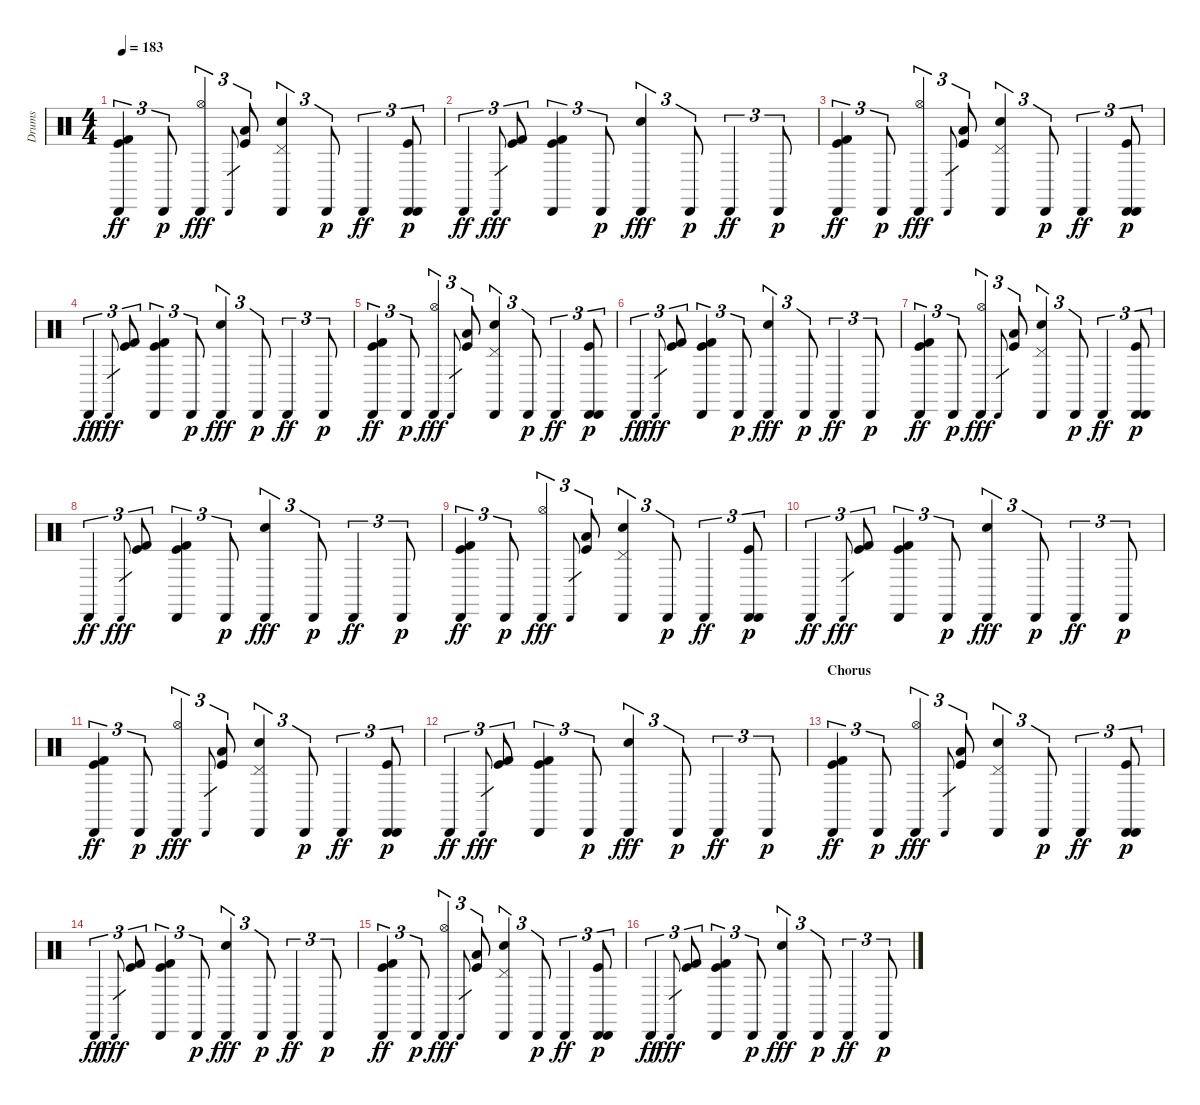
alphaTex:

\track ("Drums" "Drums") {instrument percussion}
\staff {score}
\articulation defaults
\ts (4 4)
\tempo 183
\clef neutral
\ks c
("Kick (hit) 2" "Kick (hit)" "Cabasa (hit)").4{tu (3 2) dy ff} "Cabasa (hit)".8{tu (3 2) dy p} ("Cabasa (hit)" "Hi-Hat (open)").4{tu (3 2) dy fff} "Cabasa (hit)".8{gr} ("Kick (hit)" "Low Floor Tom (hit)").8{tu (3 2)} ("Cabasa (hit)" "Electric Snare (hit)" "Pedal Hi-Hat (hit)").4{tu (3 2)} "Cabasa (hit)".8{tu (3 2) dy p} "Cabasa (hit)".4{tu (3 2) dy ff} ("Cabasa (hit)" "Kick (hit)" "Cabasa (hit)").8{tu (3 2) dy p} |
"Cabasa (hit)".4{tu (3 2) dy ff} "Cabasa (hit)".8{gr dy fff} ("Kick (hit)" "Kick (hit) 2").8{tu (3 2)} ("Cabasa (hit)" "Kick (hit)" "Kick (hit) 2").4{tu (3 2)} "Cabasa (hit)".8{tu (3 2) dy p} ("Cabasa (hit)" "Electric Snare (hit)").4{tu (3 2) dy fff} "Cabasa (hit)".8{tu (3 2) dy p} "Cabasa (hit)".4{tu (3 2) dy ff} "Cabasa (hit)".8{tu (3 2) dy p} |
("Kick (hit) 2" "Kick (hit)" "Cabasa (hit)").4{tu (3 2) dy ff} "Cabasa (hit)".8{tu (3 2) dy p} ("Cabasa (hit)" "Hi-Hat (open)").4{tu (3 2) dy fff} "Cabasa (hit)".8{gr} ("Kick (hit)" "Low Floor Tom (hit)").8{tu (3 2)} ("Cabasa (hit)" "Electric Snare (hit)" "Pedal Hi-Hat (hit)").4{tu (3 2)} "Cabasa (hit)".8{tu (3 2) dy p} "Cabasa (hit)".4{tu (3 2) dy ff} ("Cabasa (hit)" "Kick (hit)" "Cabasa (hit)").8{tu (3 2) dy p} |
"Cabasa (hit)".4{tu (3 2) dy ff} "Cabasa (hit)".8{gr dy fff} ("Kick (hit)" "Kick (hit) 2").8{tu (3 2)} ("Cabasa (hit)" "Kick (hit)" "Kick (hit) 2").4{tu (3 2)} "Cabasa (hit)".8{tu (3 2) dy p} ("Cabasa (hit)" "Electric Snare (hit)").4{tu (3 2) dy fff} "Cabasa (hit)".8{tu (3 2) dy p} "Cabasa (hit)".4{tu (3 2) dy ff} "Cabasa (hit)".8{tu (3 2) dy p} |
("Kick (hit) 2" "Kick (hit)" "Cabasa (hit)").4{tu (3 2) dy ff} "Cabasa (hit)".8{tu (3 2) dy p} ("Cabasa (hit)" "Hi-Hat (open)").4{tu (3 2) dy fff} "Cabasa (hit)".8{gr} ("Kick (hit)" "Low Floor Tom (hit)").8{tu (3 2)} ("Cabasa (hit)" "Electric Snare (hit)" "Pedal Hi-Hat (hit)").4{tu (3 2)} "Cabasa (hit)".8{tu (3 2) dy p} "Cabasa (hit)".4{tu (3 2) dy ff} ("Cabasa (hit)" "Kick (hit)" "Cabasa (hit)").8{tu (3 2) dy p} |
"Cabasa (hit)".4{tu (3 2) dy ff} "Cabasa (hit)".8{gr dy fff} ("Kick (hit)" "Kick (hit) 2").8{tu (3 2)} ("Cabasa (hit)" "Kick (hit)" "Kick (hit) 2").4{tu (3 2)} "Cabasa (hit)".8{tu (3 2) dy p} ("Cabasa (hit)" "Electric Snare (hit)").4{tu (3 2) dy fff} "Cabasa (hit)".8{tu (3 2) dy p} "Cabasa (hit)".4{tu (3 2) dy ff} "Cabasa (hit)".8{tu (3 2) dy p} |
("Kick (hit) 2" "Kick (hit)" "Cabasa (hit)").4{tu (3 2) dy ff} "Cabasa (hit)".8{tu (3 2) dy p} ("Cabasa (hit)" "Hi-Hat (open)").4{tu (3 2) dy fff} "Cabasa (hit)".8{gr} ("Kick (hit)" "Low Floor Tom (hit)").8{tu (3 2)} ("Cabasa (hit)" "Electric Snare (hit)" "Pedal Hi-Hat (hit)").4{tu (3 2)} "Cabasa (hit)".8{tu (3 2) dy p} "Cabasa (hit)".4{tu (3 2) dy ff} ("Cabasa (hit)" "Kick (hit)" "Cabasa (hit)").8{tu (3 2) dy p} |
"Cabasa (hit)".4{tu (3 2) dy ff} "Cabasa (hit)".8{gr dy fff} ("Kick (hit)" "Kick (hit) 2").8{tu (3 2)} ("Cabasa (hit)" "Kick (hit)" "Kick (hit) 2").4{tu (3 2)} "Cabasa (hit)".8{tu (3 2) dy p} ("Cabasa (hit)" "Electric Snare (hit)").4{tu (3 2) dy fff} "Cabasa (hit)".8{tu (3 2) dy p} "Cabasa (hit)".4{tu (3 2) dy ff} "Cabasa (hit)".8{tu (3 2) dy p} |
("Kick (hit) 2" "Kick (hit)" "Cabasa (hit)").4{tu (3 2) dy ff} "Cabasa (hit)".8{tu (3 2) dy p} ("Cabasa (hit)" "Hi-Hat (open)").4{tu (3 2) dy fff} "Cabasa (hit)".8{gr} ("Kick (hit)" "Low Floor Tom (hit)").8{tu (3 2)} ("Cabasa (hit)" "Electric Snare (hit)" "Pedal Hi-Hat (hit)").4{tu (3 2)} "Cabasa (hit)".8{tu (3 2) dy p} "Cabasa (hit)".4{tu (3 2) dy ff} ("Cabasa (hit)" "Kick (hit)" "Cabasa (hit)").8{tu (3 2) dy p} |
"Cabasa (hit)".4{tu (3 2) dy ff} "Cabasa (hit)".8{gr dy fff} ("Kick (hit)" "Kick (hit) 2").8{tu (3 2)} ("Cabasa (hit)" "Kick (hit)" "Kick (hit) 2").4{tu (3 2)} "Cabasa (hit)".8{tu (3 2) dy p} ("Cabasa (hit)" "Electric Snare (hit)").4{tu (3 2) dy fff} "Cabasa (hit)".8{tu (3 2) dy p} "Cabasa (hit)".4{tu (3 2) dy ff} "Cabasa (hit)".8{tu (3 2) dy p} |
("Kick (hit) 2" "Kick (hit)" "Cabasa (hit)").4{tu (3 2) dy ff} "Cabasa (hit)".8{tu (3 2) dy p} ("Cabasa (hit)" "Hi-Hat (open)").4{tu (3 2) dy fff} "Cabasa (hit)".8{gr} ("Kick (hit)" "Low Floor Tom (hit)").8{tu (3 2)} ("Cabasa (hit)" "Electric Snare (hit)" "Pedal Hi-Hat (hit)").4{tu (3 2)} "Cabasa (hit)".8{tu (3 2) dy p} "Cabasa (hit)".4{tu (3 2) dy ff} ("Cabasa (hit)" "Kick (hit)" "Cabasa (hit)").8{tu (3 2) dy p} |
"Cabasa (hit)".4{tu (3 2) dy ff} "Cabasa (hit)".8{gr dy fff} ("Kick (hit)" "Kick (hit) 2").8{tu (3 2)} ("Cabasa (hit)" "Kick (hit)" "Kick (hit) 2").4{tu (3 2)} "Cabasa (hit)".8{tu (3 2) dy p} ("Cabasa (hit)" "Electric Snare (hit)").4{tu (3 2) dy fff} "Cabasa (hit)".8{tu (3 2) dy p} "Cabasa (hit)".4{tu (3 2) dy ff} "Cabasa (hit)".8{tu (3 2) dy p} |
\section ("" "Chorus")
("Kick (hit) 2" "Kick (hit)" "Cabasa (hit)").4{tu (3 2) dy ff} "Cabasa (hit)".8{tu (3 2) dy p} ("Cabasa (hit)" "Hi-Hat (open)").4{tu (3 2) dy fff} "Cabasa (hit)".8{gr} ("Kick (hit)" "Low Floor Tom (hit)").8{tu (3 2)} ("Cabasa (hit)" "Electric Snare (hit)" "Pedal Hi-Hat (hit)").4{tu (3 2)} "Cabasa (hit)".8{tu (3 2) dy p} "Cabasa (hit)".4{tu (3 2) dy ff} ("Cabasa (hit)" "Kick (hit)" "Cabasa (hit)").8{tu (3 2) dy p} |
"Cabasa (hit)".4{tu (3 2) dy ff} "Cabasa (hit)".8{gr dy fff} ("Kick (hit)" "Kick (hit) 2").8{tu (3 2)} ("Cabasa (hit)" "Kick (hit)" "Kick (hit) 2").4{tu (3 2)} "Cabasa (hit)".8{tu (3 2) dy p} ("Cabasa (hit)" "Electric Snare (hit)").4{tu (3 2) dy fff} "Cabasa (hit)".8{tu (3 2) dy p} "Cabasa (hit)".4{tu (3 2) dy ff} "Cabasa (hit)".8{tu (3 2) dy p} |
("Kick (hit) 2" "Kick (hit)" "Cabasa (hit)").4{tu (3 2) dy ff} "Cabasa (hit)".8{tu (3 2) dy p} ("Cabasa (hit)" "Hi-Hat (open)").4{tu (3 2) dy fff} "Cabasa (hit)".8{gr} ("Kick (hit)" "Low Floor Tom (hit)").8{tu (3 2)} ("Cabasa (hit)" "Electric Snare (hit)" "Pedal Hi-Hat (hit)").4{tu (3 2)} "Cabasa (hit)".8{tu (3 2) dy p} "Cabasa (hit)".4{tu (3 2) dy ff} ("Cabasa (hit)" "Kick (hit)" "Cabasa (hit)").8{tu (3 2) dy p} |
"Cabasa (hit)".4{tu (3 2) dy ff} "Cabasa (hit)".8{gr dy fff} ("Kick (hit)" "Kick (hit) 2").8{tu (3 2)} ("Cabasa (hit)" "Kick (hit)" "Kick (hit) 2").4{tu (3 2)} "Cabasa (hit)".8{tu (3 2) dy p} ("Cabasa (hit)" "Electric Snare (hit)").4{tu (3 2) dy fff} "Cabasa (hit)".8{tu (3 2) dy p} "Cabasa (hit)".4{tu (3 2) dy ff} "Cabasa (hit)".8{tu (3 2) dy p}
